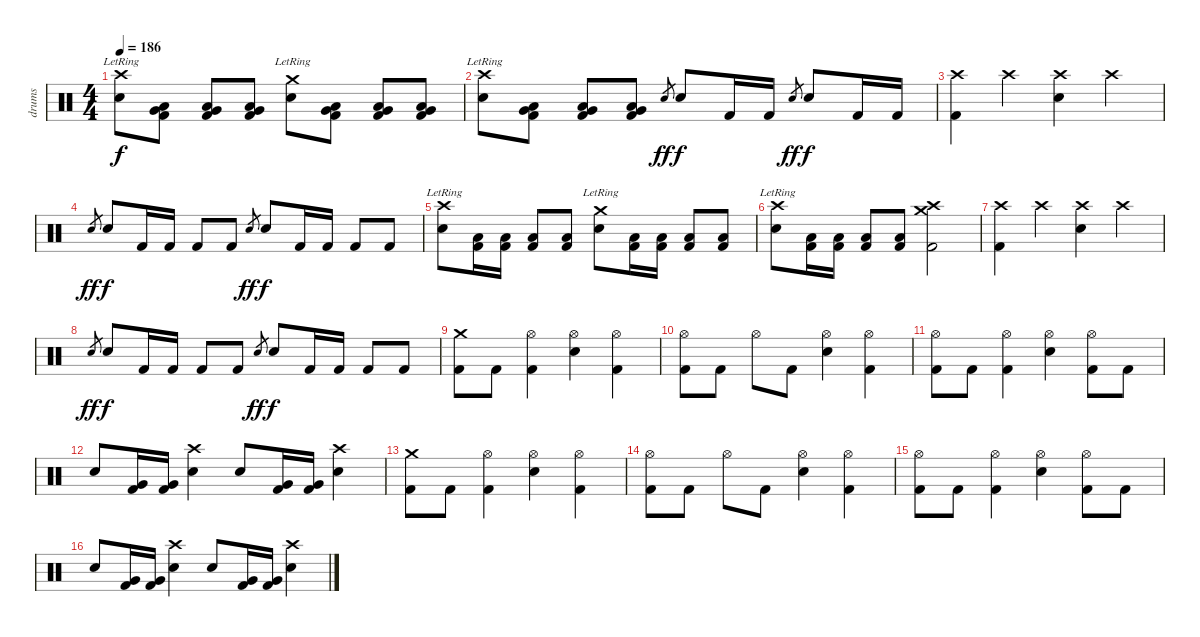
\track ("drums" "drums") {instrument percussion}
\staff {score}
\articulation defaults
\ts (4 4)
\tempo 186
\clef neutral
\ks c
("Crash high (hit)"{lr} "Electric Snare (hit)").8{dy f} ("Low Tom (hit)" "Very Low Tom (hit)" "Kick (hit) 2").8 ("Low Tom (hit)" "Very Low Tom (hit)" "Kick (hit) 2").8 ("Low Tom (hit)" "Very Low Tom (hit)" "Kick (hit) 2").8 ("Crash medium (hit)"{lr} "Electric Snare (hit)").8 ("Low Tom (hit)" "Very Low Tom (hit)" "Kick (hit) 2").8 ("Low Tom (hit)" "Very Low Tom (hit)" "Kick (hit) 2").8 ("Low Tom (hit)" "Very Low Tom (hit)" "Kick (hit) 2").8 |
("Crash high (hit)"{lr} "Electric Snare (hit)").8 ("Low Tom (hit)" "Very Low Tom (hit)" "Kick (hit) 2").8 ("Low Tom (hit)" "Very Low Tom (hit)" "Kick (hit) 2").8 ("Low Tom (hit)" "Very Low Tom (hit)" "Kick (hit) 2").8 "Snare (hit) 2".8{gr dy ff} "Electric Snare (hit)".8{dy f} "Kick (hit) 2".16 "Kick (hit) 2".16 "Snare (hit) 2".8{gr dy ff} "Electric Snare (hit)".8{dy f} "Kick (hit) 2".16 "Kick (hit) 2".16 |
("Crash high (hit)" "Kick (hit) 2").4 "Crash high (hit)".4 ("Crash high (hit)" "Electric Snare (hit)").4 "Crash high (hit)".4 |
"Snare (hit) 2".8{gr dy ff} "Electric Snare (hit)".8{dy f} "Kick (hit) 2".16 "Kick (hit) 2".16 "Kick (hit) 2".8 "Kick (hit) 2".8 "Snare (hit) 2".8{gr dy ff} "Electric Snare (hit)".8{dy f} "Kick (hit) 2".16 "Kick (hit) 2".16 "Kick (hit) 2".8 "Kick (hit) 2".8 |
("Crash high (hit)"{lr} "Electric Snare (hit)").8 ("Low Tom (hit)" "Kick (hit) 2").16 ("Low Tom (hit)" "Kick (hit) 2").16 ("Low Tom (hit)" "Kick (hit) 2").8 ("Low Tom (hit)" "Kick (hit) 2").8 ("Crash medium (hit)"{lr} "Electric Snare (hit)").8 ("Low Tom (hit)" "Kick (hit) 2").16 ("Low Tom (hit)" "Kick (hit) 2").16 ("Low Tom (hit)" "Kick (hit) 2").8 ("Low Tom (hit)" "Kick (hit) 2").8 |
("Crash high (hit)"{lr} "Electric Snare (hit)").8 ("Low Tom (hit)" "Kick (hit) 2").16 ("Low Tom (hit)" "Kick (hit) 2").16 ("Low Tom (hit)" "Kick (hit) 2").8 ("Low Tom (hit)" "Kick (hit) 2").8 ("Crash medium (hit)" "Crash high (hit)" "Kick (hit) 2").2 |
("Crash high (hit)" "Kick (hit) 2").4 "Crash high (hit)".4 ("Crash high (hit)" "Electric Snare (hit)").4 "Crash high (hit)".4 |
"Snare (hit) 2".8{gr dy ff} "Electric Snare (hit)".8{dy f} "Kick (hit) 2".16 "Kick (hit) 2".16 "Kick (hit) 2".8 "Kick (hit) 2".8 "Snare (hit) 2".8{gr dy ff} "Electric Snare (hit)".8{dy f} "Kick (hit) 2".16 "Kick (hit) 2".16 "Kick (hit) 2".8 "Kick (hit) 2".8 |
("Crash medium (hit)" "Kick (hit) 2").8 "Kick (hit) 2".8 ("Hi-Hat (open)" "Kick (hit) 2").4 ("Hi-Hat (open)" "Electric Snare (hit)").4 ("Hi-Hat (open)" "Kick (hit) 2").4 |
("Hi-Hat (open)" "Kick (hit) 2").8 "Kick (hit) 2".8 "Hi-Hat (open)".8 "Kick (hit) 2".8 ("Hi-Hat (open)" "Electric Snare (hit)").4 ("Hi-Hat (open)" "Kick (hit) 2").4 |
("Hi-Hat (open)" "Kick (hit) 2").8 "Kick (hit) 2".8 ("Hi-Hat (open)" "Kick (hit) 2").4 ("Hi-Hat (open)" "Electric Snare (hit)").4 ("Hi-Hat (open)" "Kick (hit) 2").8 "Kick (hit) 2".8 |
"Electric Snare (hit)".8 ("Very Low Tom (hit)" "Kick (hit) 2").16 ("Very Low Tom (hit)" "Kick (hit) 2").16 ("Crash high (hit)" "Electric Snare (hit)").4 "Electric Snare (hit)".8 ("Very Low Tom (hit)" "Kick (hit) 2").16 ("Very Low Tom (hit)" "Kick (hit) 2").16 ("Crash high (hit)" "Electric Snare (hit)").4 |
("Crash medium (hit)" "Kick (hit) 2").8 "Kick (hit) 2".8 ("Hi-Hat (open)" "Kick (hit) 2").4 ("Hi-Hat (open)" "Electric Snare (hit)").4 ("Hi-Hat (open)" "Kick (hit) 2").4 |
("Hi-Hat (open)" "Kick (hit) 2").8 "Kick (hit) 2".8 "Hi-Hat (open)".8 "Kick (hit) 2".8 ("Hi-Hat (open)" "Electric Snare (hit)").4 ("Hi-Hat (open)" "Kick (hit) 2").4 |
("Hi-Hat (open)" "Kick (hit) 2").8 "Kick (hit) 2".8 ("Hi-Hat (open)" "Kick (hit) 2").4 ("Hi-Hat (open)" "Electric Snare (hit)").4 ("Hi-Hat (open)" "Kick (hit) 2").8 "Kick (hit) 2".8 |
"Electric Snare (hit)".8 ("Very Low Tom (hit)" "Kick (hit) 2").16 ("Very Low Tom (hit)" "Kick (hit) 2").16 ("Crash high (hit)" "Electric Snare (hit)").4 "Electric Snare (hit)".8 ("Very Low Tom (hit)" "Kick (hit) 2").16 ("Very Low Tom (hit)" "Kick (hit) 2").16 ("Crash high (hit)" "Electric Snare (hit)").4
